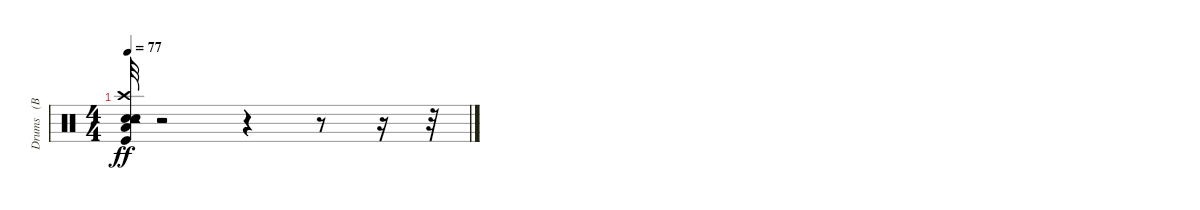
\track ("Drums   (BB)" "Drums   (B") {instrument percussion}
\staff {score}
\articulation defaults
\ts (4 4)
\tempo 77
\clef neutral
\ks c
("Kick (hit)" "Snare (hit) 2" "Crash high (hit)" "Low Floor Tom (hit)" "Tambourine (hit)" "Hand Clap (hit)").32{dy ff} r.2 r.4 r.8 r.16 r.32
